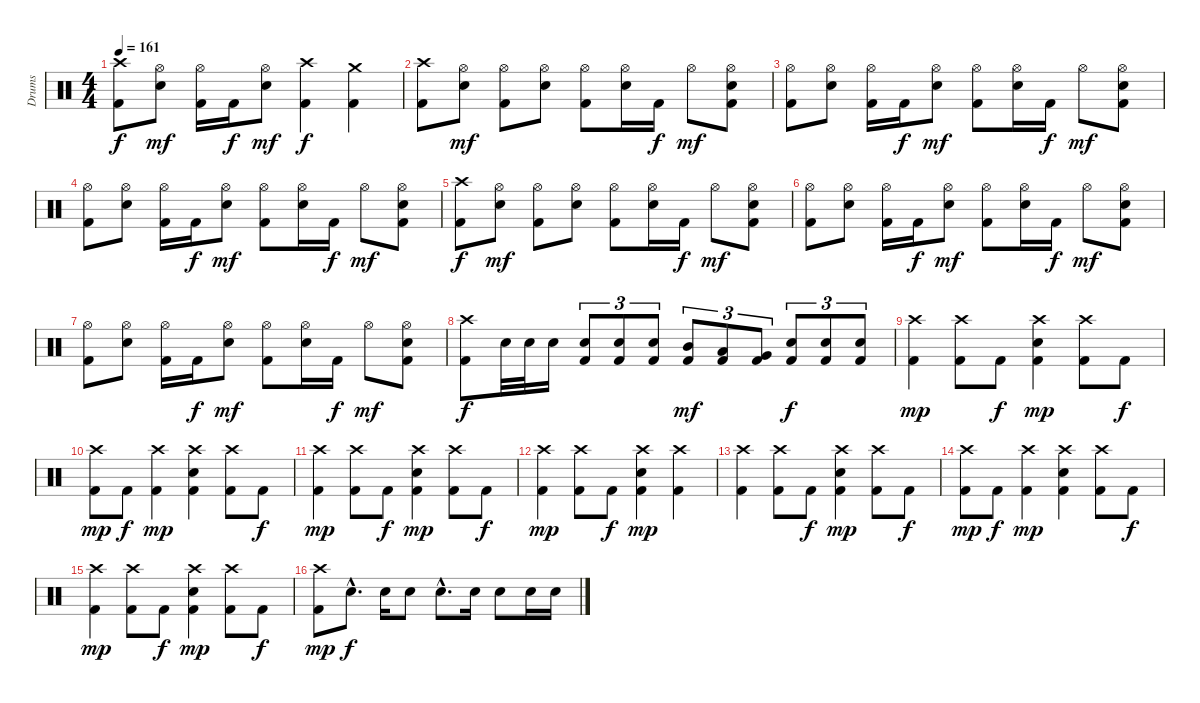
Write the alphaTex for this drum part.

\track ("Drums" "Drums") {instrument percussion}
\staff {score}
\articulation defaults
\ts (4 4)
\tempo 161
\clef neutral
\ks c
("Crash high (hit)" "Kick (hit) 2").8{dy f} ("Hi-Hat (open)" "Electric Snare (hit)").8{dy mf} ("Hi-Hat (open)" "Kick (hit) 2").16 "Kick (hit) 2".16{dy f} ("Hi-Hat (open)" "Electric Snare (hit)").8{dy mf} ("Crash high (hit)" "Kick (hit) 2").4{dy f} ("Crash medium (hit)" "Kick (hit) 2").4 |
("Crash high (hit)" "Kick (hit) 2").8 ("Hi-Hat (open)" "Electric Snare (hit)").8{dy mf} ("Hi-Hat (open)" "Kick (hit) 2").8 ("Hi-Hat (open)" "Electric Snare (hit)").8 ("Hi-Hat (open)" "Kick (hit) 2").8 ("Hi-Hat (open)" "Electric Snare (hit)").16 "Kick (hit) 2".16{dy f} "Hi-Hat (open)".8{dy mf} ("Hi-Hat (open)" "Electric Snare (hit)" "Kick (hit) 2").8 |
("Hi-Hat (open)" "Kick (hit) 2").8 ("Hi-Hat (open)" "Electric Snare (hit)").8 ("Hi-Hat (open)" "Kick (hit) 2").16 "Kick (hit) 2".16{dy f} ("Hi-Hat (open)" "Electric Snare (hit)").8{dy mf} ("Hi-Hat (open)" "Kick (hit) 2").8 ("Hi-Hat (open)" "Electric Snare (hit)").16 "Kick (hit) 2".16{dy f} "Hi-Hat (open)".8{dy mf} ("Hi-Hat (open)" "Electric Snare (hit)" "Kick (hit) 2").8 |
("Hi-Hat (open)" "Kick (hit) 2").8 ("Hi-Hat (open)" "Electric Snare (hit)").8 ("Hi-Hat (open)" "Kick (hit) 2").16 "Kick (hit) 2".16{dy f} ("Hi-Hat (open)" "Electric Snare (hit)").8{dy mf} ("Hi-Hat (open)" "Kick (hit) 2").8 ("Hi-Hat (open)" "Electric Snare (hit)").16 "Kick (hit) 2".16{dy f} "Hi-Hat (open)".8{dy mf} ("Hi-Hat (open)" "Electric Snare (hit)" "Kick (hit) 2").8 |
("Crash high (hit)" "Kick (hit) 2").8{dy f} ("Hi-Hat (open)" "Electric Snare (hit)").8{dy mf} ("Hi-Hat (open)" "Kick (hit) 2").8 ("Hi-Hat (open)" "Electric Snare (hit)").8 ("Hi-Hat (open)" "Kick (hit) 2").8 ("Hi-Hat (open)" "Electric Snare (hit)").16 "Kick (hit) 2".16{dy f} "Hi-Hat (open)".8{dy mf} ("Hi-Hat (open)" "Electric Snare (hit)" "Kick (hit) 2").8 |
("Hi-Hat (open)" "Kick (hit) 2").8 ("Hi-Hat (open)" "Electric Snare (hit)").8 ("Hi-Hat (open)" "Kick (hit) 2").16 "Kick (hit) 2".16{dy f} ("Hi-Hat (open)" "Electric Snare (hit)").8{dy mf} ("Hi-Hat (open)" "Kick (hit) 2").8 ("Hi-Hat (open)" "Electric Snare (hit)").16 "Kick (hit) 2".16{dy f} "Hi-Hat (open)".8{dy mf} ("Hi-Hat (open)" "Electric Snare (hit)" "Kick (hit) 2").8 |
("Hi-Hat (open)" "Kick (hit) 2").8 ("Hi-Hat (open)" "Electric Snare (hit)").8 ("Hi-Hat (open)" "Kick (hit) 2").16 "Kick (hit) 2".16{dy f} ("Hi-Hat (open)" "Electric Snare (hit)").8{dy mf} ("Hi-Hat (open)" "Kick (hit) 2").8 ("Hi-Hat (open)" "Electric Snare (hit)").16 "Kick (hit) 2".16{dy f} "Hi-Hat (open)".8{dy mf} ("Hi-Hat (open)" "Electric Snare (hit)" "Kick (hit) 2").8 |
("Crash high (hit)" "Kick (hit) 2").8{dy f} "Electric Snare (hit)".32 "Electric Snare (hit)".32 "Electric Snare (hit)".16 ("Electric Snare (hit)" "Kick (hit) 2").8{tu (3 2)} ("Electric Snare (hit)" "Kick (hit) 2").8{tu (3 2)} ("Electric Snare (hit)" "Kick (hit) 2").8{tu (3 2)} ("Mid Tom (hit)" "Kick (hit) 2").8{tu (3 2) dy mf} ("Low Tom (hit)" "Kick (hit) 2").8{tu (3 2)} ("Very Low Tom (hit)" "Kick (hit) 2").8{tu (3 2)} ("Electric Snare (hit)" "Kick (hit) 2").8{tu (3 2) dy f} ("Electric Snare (hit)" "Kick (hit) 2").8{tu (3 2)} ("Electric Snare (hit)" "Kick (hit) 2").8{tu (3 2)} |
("Crash high (hit)" "Kick (hit) 2").4{dy mp} ("Crash high (hit)" "Kick (hit) 2").8 "Kick (hit) 2".8{dy f} ("Crash high (hit)" "Electric Snare (hit)" "Kick (hit) 2").4{dy mp} ("Crash high (hit)" "Kick (hit) 2").8 "Kick (hit) 2".8{dy f} |
("Crash high (hit)" "Kick (hit) 2").8{dy mp} "Kick (hit) 2".8{dy f} ("Crash high (hit)" "Kick (hit) 2").4{dy mp} ("Crash high (hit)" "Electric Snare (hit)" "Kick (hit) 2").4 ("Crash high (hit)" "Kick (hit) 2").8 "Kick (hit) 2".8{dy f} |
("Crash high (hit)" "Kick (hit) 2").4{dy mp} ("Crash high (hit)" "Kick (hit) 2").8 "Kick (hit) 2".8{dy f} ("Crash high (hit)" "Electric Snare (hit)" "Kick (hit) 2").4{dy mp} ("Crash high (hit)" "Kick (hit) 2").8 "Kick (hit) 2".8{dy f} |
("Crash high (hit)" "Kick (hit) 2").4{dy mp} ("Crash high (hit)" "Kick (hit) 2").8 "Kick (hit) 2".8{dy f} ("Crash high (hit)" "Electric Snare (hit)" "Kick (hit) 2").4{dy mp} ("Crash high (hit)" "Kick (hit) 2").4 |
("Crash high (hit)" "Kick (hit) 2").4 ("Crash high (hit)" "Kick (hit) 2").8 "Kick (hit) 2".8{dy f} ("Crash high (hit)" "Electric Snare (hit)" "Kick (hit) 2").4{dy mp} ("Crash high (hit)" "Kick (hit) 2").8 "Kick (hit) 2".8{dy f} |
("Crash high (hit)" "Kick (hit) 2").8{dy mp} "Kick (hit) 2".8{dy f} ("Crash high (hit)" "Kick (hit) 2").4{dy mp} ("Crash high (hit)" "Electric Snare (hit)" "Kick (hit) 2").4 ("Crash high (hit)" "Kick (hit) 2").8 "Kick (hit) 2".8{dy f} |
("Crash high (hit)" "Kick (hit) 2").4{dy mp} ("Crash high (hit)" "Kick (hit) 2").8 "Kick (hit) 2".8{dy f} ("Crash high (hit)" "Electric Snare (hit)" "Kick (hit) 2").4{dy mp} ("Crash high (hit)" "Kick (hit) 2").8 "Kick (hit) 2".8{dy f} |
("Crash high (hit)" "Kick (hit) 2").8{dy mp} "Electric Snare (hit)"{hac}.8{d dy f} "Electric Snare (hit)".16 "Electric Snare (hit)".8 "Electric Snare (hit)"{hac}.8{d} "Electric Snare (hit)".16 "Electric Snare (hit)".8 "Electric Snare (hit)".16 "Electric Snare (hit)".16
